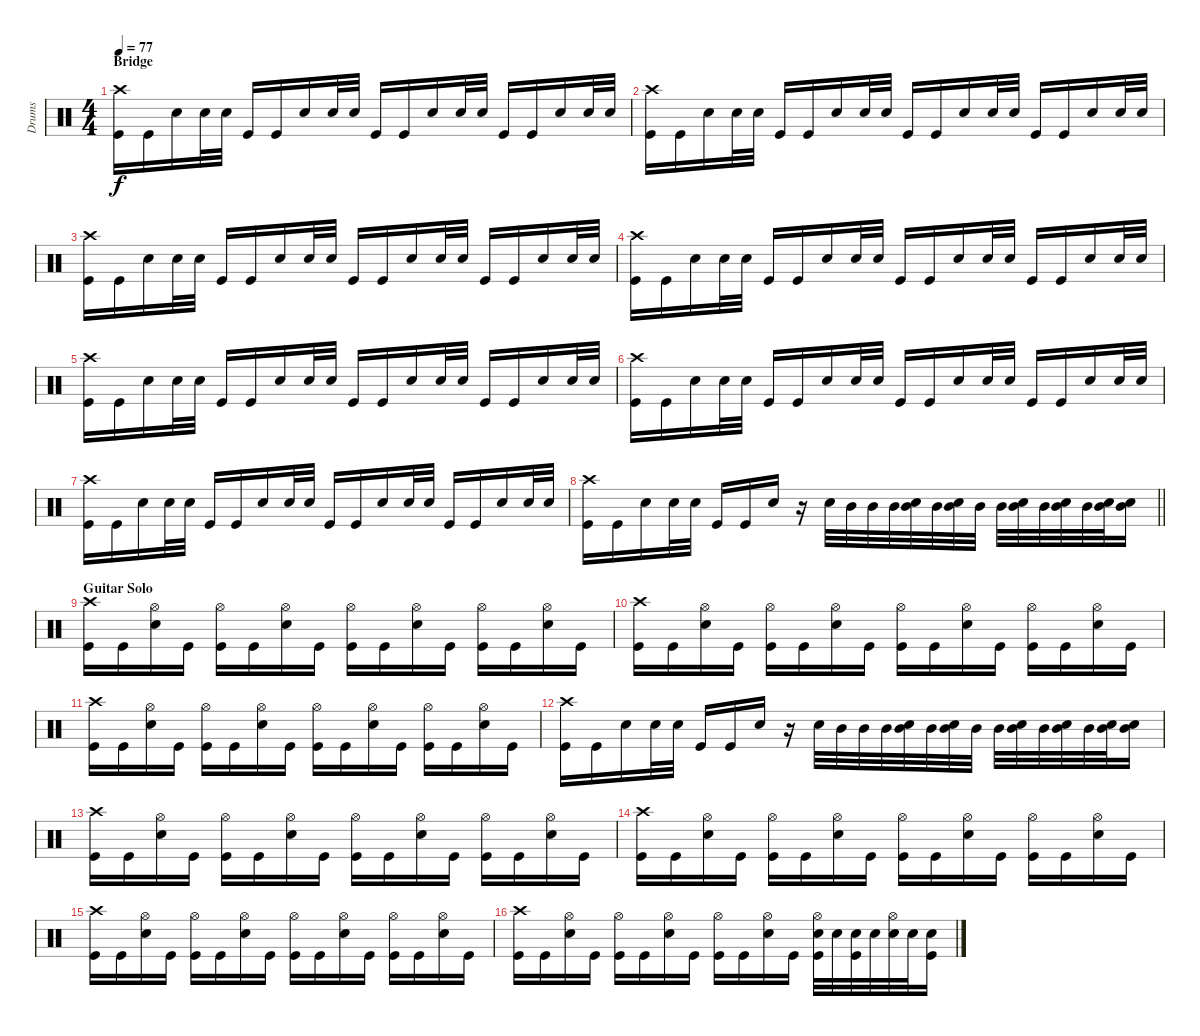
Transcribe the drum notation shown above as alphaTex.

\track ("Drums" "Drums") {instrument percussion}
\staff {score}
\articulation defaults
\ts (4 4)
\section ("" "Bridge")
\tempo 77
\clef neutral
\ks c
("Crash high (hit)" "Kick (hit)").16{dy f} "Kick (hit)".16 "Snare (hit) 2".16 "Snare (hit) 2".32 "Snare (hit) 2".32 "Kick (hit)".16 "Kick (hit)".16 "Snare (hit) 2".16 "Snare (hit) 2".32 "Snare (hit) 2".32 "Kick (hit)".16 "Kick (hit)".16 "Snare (hit) 2".16 "Snare (hit) 2".32 "Snare (hit) 2".32 "Kick (hit)".16 "Kick (hit)".16 "Snare (hit) 2".16 "Snare (hit) 2".32 "Snare (hit) 2".32 |
("Crash high (hit)" "Kick (hit)").16 "Kick (hit)".16 "Snare (hit) 2".16 "Snare (hit) 2".32 "Snare (hit) 2".32 "Kick (hit)".16 "Kick (hit)".16 "Snare (hit) 2".16 "Snare (hit) 2".32 "Snare (hit) 2".32 "Kick (hit)".16 "Kick (hit)".16 "Snare (hit) 2".16 "Snare (hit) 2".32 "Snare (hit) 2".32 "Kick (hit)".16 "Kick (hit)".16 "Snare (hit) 2".16 "Snare (hit) 2".32 "Snare (hit) 2".32 |
("Crash high (hit)" "Kick (hit)").16 "Kick (hit)".16 "Snare (hit) 2".16 "Snare (hit) 2".32 "Snare (hit) 2".32 "Kick (hit)".16 "Kick (hit)".16 "Snare (hit) 2".16 "Snare (hit) 2".32 "Snare (hit) 2".32 "Kick (hit)".16 "Kick (hit)".16 "Snare (hit) 2".16 "Snare (hit) 2".32 "Snare (hit) 2".32 "Kick (hit)".16 "Kick (hit)".16 "Snare (hit) 2".16 "Snare (hit) 2".32 "Snare (hit) 2".32 |
("Crash high (hit)" "Kick (hit)").16 "Kick (hit)".16 "Snare (hit) 2".16 "Snare (hit) 2".32 "Snare (hit) 2".32 "Kick (hit)".16 "Kick (hit)".16 "Snare (hit) 2".16 "Snare (hit) 2".32 "Snare (hit) 2".32 "Kick (hit)".16 "Kick (hit)".16 "Snare (hit) 2".16 "Snare (hit) 2".32 "Snare (hit) 2".32 "Kick (hit)".16 "Kick (hit)".16 "Snare (hit) 2".16 "Snare (hit) 2".32 "Snare (hit) 2".32 |
("Crash high (hit)" "Kick (hit)").16 "Kick (hit)".16 "Snare (hit) 2".16 "Snare (hit) 2".32 "Snare (hit) 2".32 "Kick (hit)".16 "Kick (hit)".16 "Snare (hit) 2".16 "Snare (hit) 2".32 "Snare (hit) 2".32 "Kick (hit)".16 "Kick (hit)".16 "Snare (hit) 2".16 "Snare (hit) 2".32 "Snare (hit) 2".32 "Kick (hit)".16 "Kick (hit)".16 "Snare (hit) 2".16 "Snare (hit) 2".32 "Snare (hit) 2".32 |
("Crash high (hit)" "Kick (hit)").16 "Kick (hit)".16 "Snare (hit) 2".16 "Snare (hit) 2".32 "Snare (hit) 2".32 "Kick (hit)".16 "Kick (hit)".16 "Snare (hit) 2".16 "Snare (hit) 2".32 "Snare (hit) 2".32 "Kick (hit)".16 "Kick (hit)".16 "Snare (hit) 2".16 "Snare (hit) 2".32 "Snare (hit) 2".32 "Kick (hit)".16 "Kick (hit)".16 "Snare (hit) 2".16 "Snare (hit) 2".32 "Snare (hit) 2".32 |
("Crash high (hit)" "Kick (hit)").16 "Kick (hit)".16 "Snare (hit) 2".16 "Snare (hit) 2".32 "Snare (hit) 2".32 "Kick (hit)".16 "Kick (hit)".16 "Snare (hit) 2".16 "Snare (hit) 2".32 "Snare (hit) 2".32 "Kick (hit)".16 "Kick (hit)".16 "Snare (hit) 2".16 "Snare (hit) 2".32 "Snare (hit) 2".32 "Kick (hit)".16 "Kick (hit)".16 "Snare (hit) 2".16 "Snare (hit) 2".32 "Snare (hit) 2".32 |
\barLineRight lightlight
("Crash high (hit)" "Kick (hit)").16 "Kick (hit)".16 "Snare (hit) 2".16 "Snare (hit) 2".32 "Snare (hit) 2".32 "Kick (hit)".16 "Kick (hit)".16 "Snare (hit) 2".16 r.16 "Snare (hit) 2".32 "Mid Tom (hit)".32 "Mid Tom (hit)".32 "Mid Tom (hit)".32 ("Snare (hit) 2" "Mid Tom (hit)").32 "Mid Tom (hit)".32 ("Snare (hit) 2" "Mid Tom (hit)").32 "Mid Tom (hit)".32 "Mid Tom (hit)".32 ("Snare (hit) 2" "Mid Tom (hit)").32 "Mid Tom (hit)".32 ("Snare (hit) 2" "Mid Tom (hit)").32 "Mid Tom (hit)".32 ("Snare (hit) 2" "Mid Tom (hit)").32 ("Snare (hit) 2" "Mid Tom (hit)").16 |
\section ("" "Guitar Solo")
("Crash high (hit)" "Kick (hit)").16 "Kick (hit)".16 ("Hi-Hat (open)" "Snare (hit) 2").16 "Kick (hit)".16 ("Hi-Hat (open)" "Kick (hit)").16 "Kick (hit)".16 ("Hi-Hat (open)" "Snare (hit) 2").16 "Kick (hit)".16 ("Hi-Hat (open)" "Kick (hit)").16 "Kick (hit)".16 ("Hi-Hat (open)" "Snare (hit) 2").16 "Kick (hit)".16 ("Hi-Hat (open)" "Kick (hit)").16 "Kick (hit)".16 ("Hi-Hat (open)" "Snare (hit) 2").16 "Kick (hit)".16 |
("Crash high (hit)" "Kick (hit)").16 "Kick (hit)".16 ("Hi-Hat (open)" "Snare (hit) 2").16 "Kick (hit)".16 ("Hi-Hat (open)" "Kick (hit)").16 "Kick (hit)".16 ("Hi-Hat (open)" "Snare (hit) 2").16 "Kick (hit)".16 ("Hi-Hat (open)" "Kick (hit)").16 "Kick (hit)".16 ("Hi-Hat (open)" "Snare (hit) 2").16 "Kick (hit)".16 ("Hi-Hat (open)" "Kick (hit)").16 "Kick (hit)".16 ("Hi-Hat (open)" "Snare (hit) 2").16 "Kick (hit)".16 |
("Crash high (hit)" "Kick (hit)").16 "Kick (hit)".16 ("Hi-Hat (open)" "Snare (hit) 2").16 "Kick (hit)".16 ("Hi-Hat (open)" "Kick (hit)").16 "Kick (hit)".16 ("Hi-Hat (open)" "Snare (hit) 2").16 "Kick (hit)".16 ("Hi-Hat (open)" "Kick (hit)").16 "Kick (hit)".16 ("Hi-Hat (open)" "Snare (hit) 2").16 "Kick (hit)".16 ("Hi-Hat (open)" "Kick (hit)").16 "Kick (hit)".16 ("Hi-Hat (open)" "Snare (hit) 2").16 "Kick (hit)".16 |
("Crash high (hit)" "Kick (hit)").16 "Kick (hit)".16 "Snare (hit) 2".16 "Snare (hit) 2".32 "Snare (hit) 2".32 "Kick (hit)".16 "Kick (hit)".16 "Snare (hit) 2".16 r.16 "Snare (hit) 2".32 "Mid Tom (hit)".32 "Mid Tom (hit)".32 "Mid Tom (hit)".32 ("Snare (hit) 2" "Mid Tom (hit)").32 "Mid Tom (hit)".32 ("Snare (hit) 2" "Mid Tom (hit)").32 "Mid Tom (hit)".32 "Mid Tom (hit)".32 ("Snare (hit) 2" "Mid Tom (hit)").32 "Mid Tom (hit)".32 ("Snare (hit) 2" "Mid Tom (hit)").32 "Mid Tom (hit)".32 ("Snare (hit) 2" "Mid Tom (hit)").32 ("Snare (hit) 2" "Mid Tom (hit)").16 |
("Crash high (hit)" "Kick (hit)").16 "Kick (hit)".16 ("Hi-Hat (open)" "Snare (hit) 2").16 "Kick (hit)".16 ("Hi-Hat (open)" "Kick (hit)").16 "Kick (hit)".16 ("Hi-Hat (open)" "Snare (hit) 2").16 "Kick (hit)".16 ("Hi-Hat (open)" "Kick (hit)").16 "Kick (hit)".16 ("Hi-Hat (open)" "Snare (hit) 2").16 "Kick (hit)".16 ("Hi-Hat (open)" "Kick (hit)").16 "Kick (hit)".16 ("Hi-Hat (open)" "Snare (hit) 2").16 "Kick (hit)".16 |
("Crash high (hit)" "Kick (hit)").16 "Kick (hit)".16 ("Hi-Hat (open)" "Snare (hit) 2").16 "Kick (hit)".16 ("Hi-Hat (open)" "Kick (hit)").16 "Kick (hit)".16 ("Hi-Hat (open)" "Snare (hit) 2").16 "Kick (hit)".16 ("Hi-Hat (open)" "Kick (hit)").16 "Kick (hit)".16 ("Hi-Hat (open)" "Snare (hit) 2").16 "Kick (hit)".16 ("Hi-Hat (open)" "Kick (hit)").16 "Kick (hit)".16 ("Hi-Hat (open)" "Snare (hit) 2").16 "Kick (hit)".16 |
("Crash high (hit)" "Kick (hit)").16 "Kick (hit)".16 ("Hi-Hat (open)" "Snare (hit) 2").16 "Kick (hit)".16 ("Hi-Hat (open)" "Kick (hit)").16 "Kick (hit)".16 ("Hi-Hat (open)" "Snare (hit) 2").16 "Kick (hit)".16 ("Hi-Hat (open)" "Kick (hit)").16 "Kick (hit)".16 ("Hi-Hat (open)" "Snare (hit) 2").16 "Kick (hit)".16 ("Hi-Hat (open)" "Kick (hit)").16 "Kick (hit)".16 ("Hi-Hat (open)" "Snare (hit) 2").16 "Kick (hit)".16 |
("Crash high (hit)" "Kick (hit)").16 "Kick (hit)".16 ("Hi-Hat (open)" "Snare (hit) 2").16 "Kick (hit)".16 ("Hi-Hat (open)" "Kick (hit)").16 "Kick (hit)".16 ("Hi-Hat (open)" "Snare (hit) 2").16 "Kick (hit)".16 ("Hi-Hat (open)" "Kick (hit)").16 "Kick (hit)".16 ("Hi-Hat (open)" "Snare (hit) 2").16 "Kick (hit)".16 ("Hi-Hat (open)" "Snare (hit) 2" "Kick (hit)").32 "Snare (hit) 2".32 ("Snare (hit) 2" "Kick (hit)").32 "Snare (hit) 2".32 ("Hi-Hat (open)" "Snare (hit) 2").32 "Snare (hit) 2".32 ("Snare (hit) 2" "Kick (hit)").16
